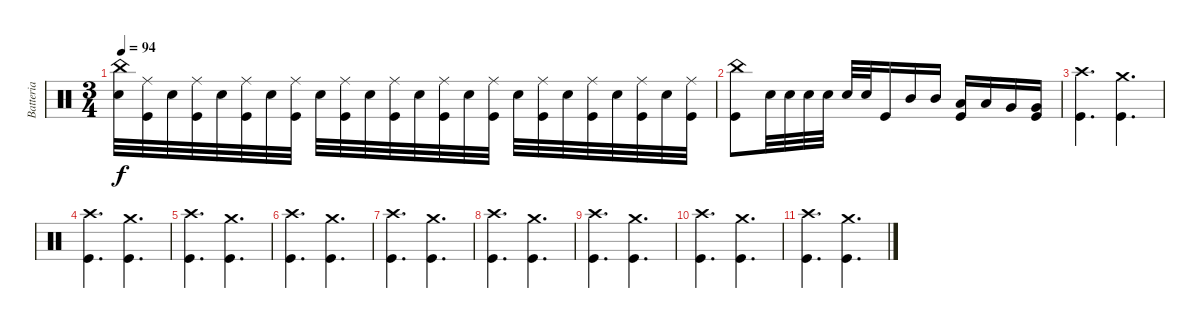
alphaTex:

\track ("Batteria" "Batteria") {instrument percussion}
\staff {score}
\articulation defaults
\ts (3 4)
\tempo 94
\clef neutral
\ks c
("China (hit)" "Snare (hit) 2").32{dy f} ("Ride (middle)" "Kick (hit)").32 "Snare (hit) 2".32 ("Ride (middle)" "Kick (hit)").32 "Snare (hit) 2".32 ("Ride (middle)" "Kick (hit)").32 "Snare (hit) 2".32 ("Ride (middle)" "Kick (hit)").32 "Snare (hit) 2".32 ("Ride (middle)" "Kick (hit)").32 "Snare (hit) 2".32 ("Ride (middle)" "Kick (hit)").32 "Snare (hit) 2".32 ("Ride (middle)" "Kick (hit)").32 "Snare (hit) 2".32 ("Ride (middle)" "Kick (hit)").32 "Snare (hit) 2".32 ("Ride (middle)" "Kick (hit)").32 "Snare (hit) 2".32 ("Ride (middle)" "Kick (hit)").32 "Snare (hit) 2".32 ("Ride (middle)" "Kick (hit)").32 "Snare (hit) 2".32 ("Ride (middle)" "Kick (hit)").32 |
("China (hit)" "Kick (hit)").8 "Snare (hit) 2".32 "Snare (hit) 2".32 "Snare (hit) 2".32 "Snare (hit) 2".32 "Snare (hit) 2".32 "Snare (hit) 2".32 "Kick (hit)".16 "Mid Tom (hit)".16 "Mid Tom (hit)".16 ("Low Tom (hit)" "Kick (hit)").16 "Low Tom (hit)".16 "Very Low Tom (hit)".16 ("Very Low Tom (hit)" "Kick (hit)").16 |
("Crash high (hit)" "Kick (hit)").4{d volume 0} ("Crash medium (hit)" "Kick (hit)").4{d} |
("Crash high (hit)" "Kick (hit)").4{d} ("Crash medium (hit)" "Kick (hit)").4{d} |
("Crash high (hit)" "Kick (hit)").4{d} ("Crash medium (hit)" "Kick (hit)").4{d} |
("Crash high (hit)" "Kick (hit)").4{d} ("Crash medium (hit)" "Kick (hit)").4{d} |
("Crash high (hit)" "Kick (hit)").4{d} ("Crash medium (hit)" "Kick (hit)").4{d} |
("Crash high (hit)" "Kick (hit)").4{d} ("Crash medium (hit)" "Kick (hit)").4{d} |
("Crash high (hit)" "Kick (hit)").4{d} ("Crash medium (hit)" "Kick (hit)").4{d} |
("Crash high (hit)" "Kick (hit)").4{d} ("Crash medium (hit)" "Kick (hit)").4{d} |
("Crash high (hit)" "Kick (hit)").4{d} ("Crash medium (hit)" "Kick (hit)").4{d}
